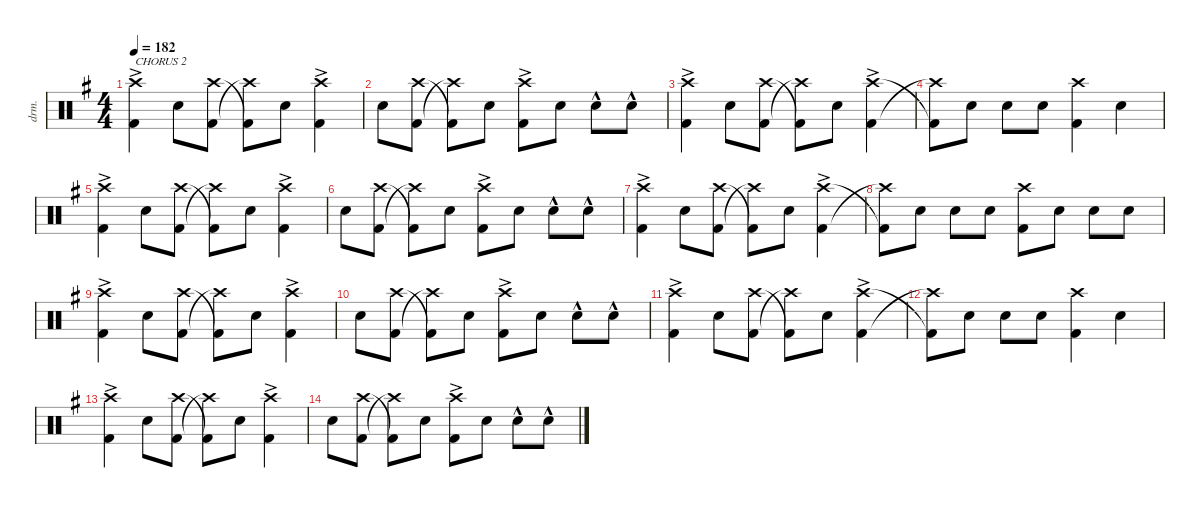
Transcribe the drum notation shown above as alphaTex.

\defaultSystemsLayout 4
\hideDynamics
\bracketExtendMode nobrackets
\otherSystemsTrackNameOrientation horizontal
\track ("Drum" "drm.") {defaultSystemsLayout 4 instrument percussion}
\staff {score}
\articulation defaults
\ts (4 4)
\tempo 182
\clef neutral
\ks g
("Kick (hit) 2"{acc forcenatural} "Crash high (hit)"{ac acc forcenatural}).4{txt "CHORUS 2" dy f beam Down} "Snare (hit) 2"{acc forcenatural}.8{beam Down} ("Kick (hit) 2"{acc forcenatural} "Crash high (hit)"{acc forcenatural}).8{beam Down} ("Crash high (hit)"{t acc forcenatural} "Kick (hit) 2"{t acc forcenatural}).8{beam Down} "Snare (hit) 2"{acc forcenatural}.8{beam Down} ("Kick (hit) 2"{ac acc forcenatural} "Crash high (hit)"{acc forcenatural}).4{beam Down} |
"Snare (hit) 2"{acc forcenatural}.8{beam Down} ("Kick (hit) 2"{acc forcenatural} "Crash high (hit)"{acc forcenatural}).8{beam Down} ("Crash high (hit)"{t acc forcenatural} "Kick (hit) 2"{t acc forcenatural}).8{beam Down} "Snare (hit) 2"{acc forcenatural}.8{beam Down} ("Kick (hit) 2"{ac acc forcenatural} "Crash high (hit)"{acc forcenatural}).8{beam Down} "Snare (hit) 2"{acc forcenatural}.8{beam Down} "Snare (hit) 2"{hac acc forcenatural}.8{beam Down} "Snare (hit) 2"{hac acc forcenatural}.8{beam Down} |
("Kick (hit) 2"{acc forcenatural} "Crash high (hit)"{ac acc forcenatural}).4{beam Down} "Snare (hit) 2"{acc forcenatural}.8{beam Down} ("Kick (hit) 2"{acc forcenatural} "Crash high (hit)"{acc forcenatural}).8{beam Down} ("Crash high (hit)"{t acc forcenatural} "Kick (hit) 2"{t acc forcenatural}).8{beam Down} "Snare (hit) 2"{acc forcenatural}.8{beam Down} ("Kick (hit) 2"{ac acc forcenatural} "Crash high (hit)"{acc forcenatural}).4{beam Down} |
("Crash high (hit)"{t acc forcenatural} "Kick (hit) 2"{t acc forcenatural}).8{beam Down} "Snare (hit) 2"{acc forcenatural}.8{beam Down} "Snare (hit) 2"{acc forcenatural}.8{beam Down} "Snare (hit) 2"{acc forcenatural}.8{beam Down} ("Kick (hit) 2"{acc forcenatural} "Crash high (hit)"{acc forcenatural}).4{beam Down} "Snare (hit) 2"{acc forcenatural}.4{beam Down} |
("Kick (hit) 2"{acc forcenatural} "Crash high (hit)"{ac acc forcenatural}).4{beam Down} "Snare (hit) 2"{acc forcenatural}.8{beam Down} ("Kick (hit) 2"{acc forcenatural} "Crash high (hit)"{acc forcenatural}).8{beam Down} ("Crash high (hit)"{t acc forcenatural} "Kick (hit) 2"{t acc forcenatural}).8{beam Down} "Snare (hit) 2"{acc forcenatural}.8{beam Down} ("Kick (hit) 2"{ac acc forcenatural} "Crash high (hit)"{acc forcenatural}).4{beam Down} |
"Snare (hit) 2"{acc forcenatural}.8{beam Down} ("Kick (hit) 2"{acc forcenatural} "Crash high (hit)"{acc forcenatural}).8{beam Down} ("Crash high (hit)"{t acc forcenatural} "Kick (hit) 2"{t acc forcenatural}).8{beam Down} "Snare (hit) 2"{acc forcenatural}.8{beam Down} ("Kick (hit) 2"{ac acc forcenatural} "Crash high (hit)"{acc forcenatural}).8{beam Down} "Snare (hit) 2"{acc forcenatural}.8{beam Down} "Snare (hit) 2"{hac acc forcenatural}.8{beam Down} "Snare (hit) 2"{hac acc forcenatural}.8{beam Down} |
("Kick (hit) 2"{acc forcenatural} "Crash high (hit)"{ac acc forcenatural}).4{beam Down} "Snare (hit) 2"{acc forcenatural}.8{beam Down} ("Kick (hit) 2"{acc forcenatural} "Crash high (hit)"{acc forcenatural}).8{beam Down} ("Crash high (hit)"{t acc forcenatural} "Kick (hit) 2"{t acc forcenatural}).8{beam Down} "Snare (hit) 2"{acc forcenatural}.8{beam Down} ("Kick (hit) 2"{ac acc forcenatural} "Crash high (hit)"{acc forcenatural}).4{beam Down} |
("Crash high (hit)"{t acc forcenatural} "Kick (hit) 2"{t acc forcenatural}).8{beam Down} "Snare (hit) 2"{acc forcenatural}.8{beam Down} "Snare (hit) 2"{acc forcenatural}.8{beam Down} "Snare (hit) 2"{acc forcenatural}.8{beam Down} ("Kick (hit) 2"{acc forcenatural} "Crash high (hit)"{acc forcenatural}).8{beam Down} "Snare (hit) 2"{acc forcenatural}.8{beam Down} "Snare (hit) 2"{acc forcenatural}.8{beam Down} "Snare (hit) 2"{acc forcenatural}.8{beam Down} |
("Kick (hit) 2"{acc forcenatural} "Crash high (hit)"{ac acc forcenatural}).4{beam Down} "Snare (hit) 2"{acc forcenatural}.8{beam Down} ("Kick (hit) 2"{acc forcenatural} "Crash high (hit)"{acc forcenatural}).8{beam Down} ("Crash high (hit)"{t acc forcenatural} "Kick (hit) 2"{t acc forcenatural}).8{beam Down} "Snare (hit) 2"{acc forcenatural}.8{beam Down} ("Kick (hit) 2"{ac acc forcenatural} "Crash high (hit)"{acc forcenatural}).4{beam Down} |
"Snare (hit) 2"{acc forcenatural}.8{beam Down} ("Kick (hit) 2"{acc forcenatural} "Crash high (hit)"{acc forcenatural}).8{beam Down} ("Crash high (hit)"{t acc forcenatural} "Kick (hit) 2"{t acc forcenatural}).8{beam Down} "Snare (hit) 2"{acc forcenatural}.8{beam Down} ("Kick (hit) 2"{ac acc forcenatural} "Crash high (hit)"{acc forcenatural}).8{beam Down} "Snare (hit) 2"{acc forcenatural}.8{beam Down} "Snare (hit) 2"{hac acc forcenatural}.8{beam Down} "Snare (hit) 2"{hac acc forcenatural}.8{beam Down} |
("Kick (hit) 2"{acc forcenatural} "Crash high (hit)"{ac acc forcenatural}).4{beam Down} "Snare (hit) 2"{acc forcenatural}.8{beam Down} ("Kick (hit) 2"{acc forcenatural} "Crash high (hit)"{acc forcenatural}).8{beam Down} ("Crash high (hit)"{t acc forcenatural} "Kick (hit) 2"{t acc forcenatural}).8{beam Down} "Snare (hit) 2"{acc forcenatural}.8{beam Down} ("Kick (hit) 2"{ac acc forcenatural} "Crash high (hit)"{acc forcenatural}).4{beam Down} |
("Crash high (hit)"{t acc forcenatural} "Kick (hit) 2"{t acc forcenatural}).8{beam Down} "Snare (hit) 2"{acc forcenatural}.8{beam Down} "Snare (hit) 2"{acc forcenatural}.8{beam Down} "Snare (hit) 2"{acc forcenatural}.8{beam Down} ("Kick (hit) 2"{acc forcenatural} "Crash high (hit)"{acc forcenatural}).4{beam Down} "Snare (hit) 2"{acc forcenatural}.4{beam Down} |
("Kick (hit) 2"{acc forcenatural} "Crash high (hit)"{ac acc forcenatural}).4{beam Down} "Snare (hit) 2"{acc forcenatural}.8{beam Down} ("Kick (hit) 2"{acc forcenatural} "Crash high (hit)"{acc forcenatural}).8{beam Down} ("Crash high (hit)"{t acc forcenatural} "Kick (hit) 2"{t acc forcenatural}).8{beam Down} "Snare (hit) 2"{acc forcenatural}.8{beam Down} ("Kick (hit) 2"{ac acc forcenatural} "Crash high (hit)"{acc forcenatural}).4{beam Down} |
"Snare (hit) 2"{acc forcenatural}.8{beam Down} ("Kick (hit) 2"{acc forcenatural} "Crash high (hit)"{acc forcenatural}).8{beam Down} ("Crash high (hit)"{t acc forcenatural} "Kick (hit) 2"{t acc forcenatural}).8{beam Down} "Snare (hit) 2"{acc forcenatural}.8{beam Down} ("Kick (hit) 2"{ac acc forcenatural} "Crash high (hit)"{acc forcenatural}).8{beam Down} "Snare (hit) 2"{acc forcenatural}.8{beam Down} "Snare (hit) 2"{hac acc forcenatural}.8{beam Down} "Snare (hit) 2"{hac acc forcenatural}.8{beam Down}
